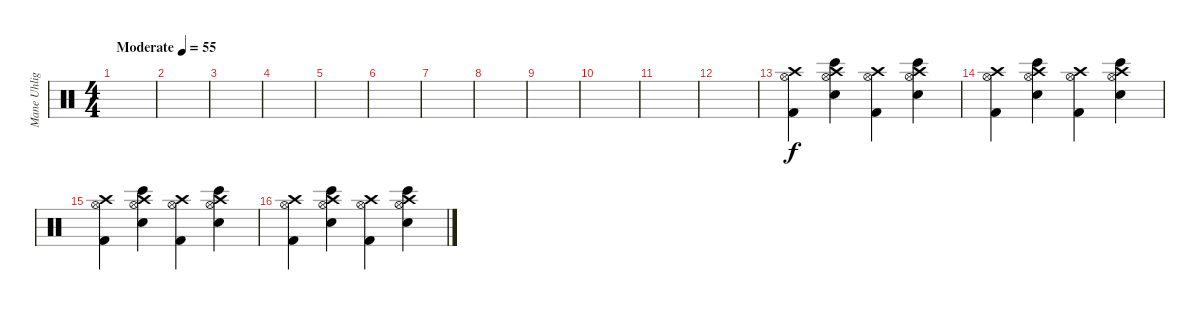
\track ("Mane Uhlig" "Mane Uhlig") {instrument percussion}
\staff {score}
\articulation defaults
\ts (4 4)
\tempo (55 "Moderate")
\clef neutral
\ks c
|
|
|
|
|
|
|
|
|
|
|
|
("Hi-Hat (open)" "Crash high (hit)" "Kick (hit) 2").4 ("Hi-Hat (open)" "Crash high (hit)" "Snare (hit) 2" "Bongo High (hit)").4 ("Hi-Hat (open)" "Crash high (hit)" "Kick (hit) 2").4 ("Hi-Hat (open)" "Crash high (hit)" "Snare (hit) 2" "Bongo High (hit)").4 |
("Hi-Hat (open)" "Crash high (hit)" "Kick (hit) 2").4 ("Hi-Hat (open)" "Crash high (hit)" "Snare (hit) 2" "Bongo High (hit)").4 ("Hi-Hat (open)" "Crash high (hit)" "Kick (hit) 2").4 ("Hi-Hat (open)" "Crash high (hit)" "Snare (hit) 2" "Bongo High (hit)").4 |
("Hi-Hat (open)" "Crash high (hit)" "Kick (hit) 2").4 ("Hi-Hat (open)" "Crash high (hit)" "Snare (hit) 2" "Bongo High (hit)").4 ("Hi-Hat (open)" "Crash high (hit)" "Kick (hit) 2").4 ("Hi-Hat (open)" "Crash high (hit)" "Snare (hit) 2" "Bongo High (hit)").4 |
("Hi-Hat (open)" "Crash high (hit)" "Kick (hit) 2").4 ("Hi-Hat (open)" "Crash high (hit)" "Snare (hit) 2" "Bongo High (hit)").4 ("Hi-Hat (open)" "Crash high (hit)" "Kick (hit) 2").4 ("Hi-Hat (open)" "Crash high (hit)" "Snare (hit) 2" "Bongo High (hit)").4
